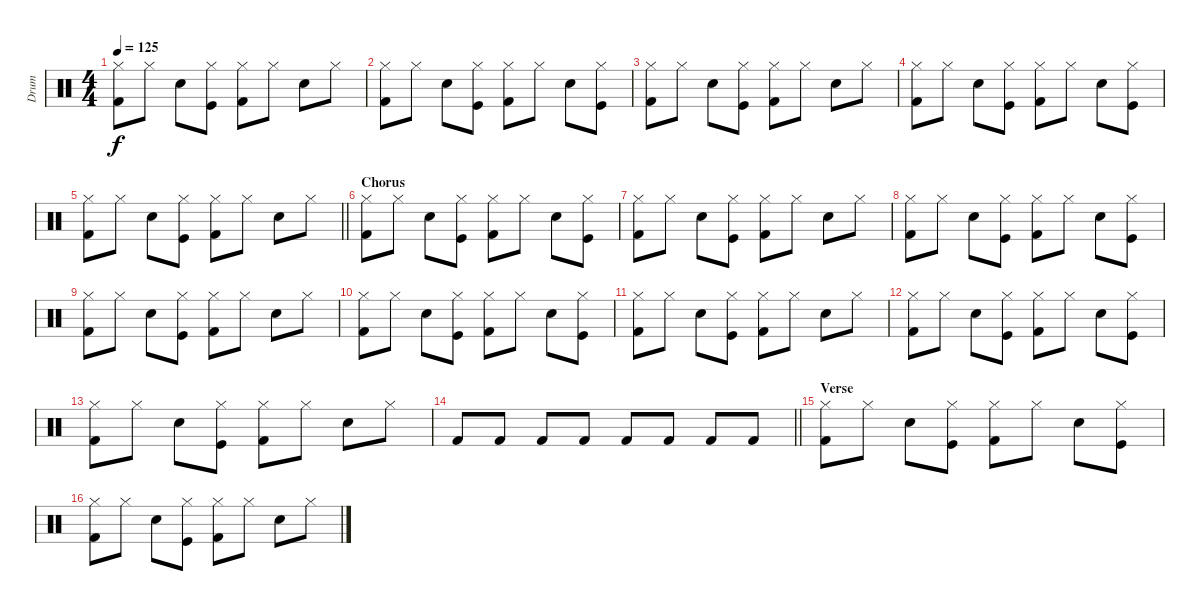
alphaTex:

\track ("Drum" "Drum") {instrument percussion}
\staff {score}
\articulation defaults
\ts (4 4)
\tempo 125
\clef neutral
\ks c
("Hi-Hat (closed)" "Kick (hit) 2").8{dy f} "Hi-Hat (closed)".8 "Electric Snare (hit)".8 ("Hi-Hat (closed)" "Kick (hit)").8 ("Hi-Hat (closed)" "Kick (hit) 2").8 "Hi-Hat (closed)".8 "Electric Snare (hit)".8 "Hi-Hat (closed)".8 |
("Hi-Hat (closed)" "Kick (hit) 2").8 "Hi-Hat (closed)".8 "Electric Snare (hit)".8 ("Hi-Hat (closed)" "Kick (hit)").8 ("Hi-Hat (closed)" "Kick (hit) 2").8 "Hi-Hat (closed)".8 "Electric Snare (hit)".8 ("Hi-Hat (closed)" "Kick (hit)").8 |
("Hi-Hat (closed)" "Kick (hit) 2").8 "Hi-Hat (closed)".8 "Electric Snare (hit)".8 ("Hi-Hat (closed)" "Kick (hit)").8 ("Hi-Hat (closed)" "Kick (hit) 2").8 "Hi-Hat (closed)".8 "Electric Snare (hit)".8 "Hi-Hat (closed)".8 |
("Hi-Hat (closed)" "Kick (hit) 2").8 "Hi-Hat (closed)".8 "Electric Snare (hit)".8 ("Hi-Hat (closed)" "Kick (hit)").8 ("Hi-Hat (closed)" "Kick (hit) 2").8 "Hi-Hat (closed)".8 "Electric Snare (hit)".8 ("Hi-Hat (closed)" "Kick (hit)").8 |
\barLineRight lightlight
("Hi-Hat (closed)" "Kick (hit) 2").8 "Hi-Hat (closed)".8 "Electric Snare (hit)".8 ("Hi-Hat (closed)" "Kick (hit)").8 ("Hi-Hat (closed)" "Kick (hit) 2").8 "Hi-Hat (closed)".8 "Electric Snare (hit)".8 "Hi-Hat (closed)".8 |
\section ("" "Chorus")
("Hi-Hat (closed)" "Kick (hit) 2").8 "Hi-Hat (closed)".8 "Electric Snare (hit)".8 ("Hi-Hat (closed)" "Kick (hit)").8 ("Hi-Hat (closed)" "Kick (hit) 2").8 "Hi-Hat (closed)".8 "Electric Snare (hit)".8 ("Hi-Hat (closed)" "Kick (hit)").8 |
("Hi-Hat (closed)" "Kick (hit) 2").8 "Hi-Hat (closed)".8 "Electric Snare (hit)".8 ("Hi-Hat (closed)" "Kick (hit)").8 ("Hi-Hat (closed)" "Kick (hit) 2").8 "Hi-Hat (closed)".8 "Electric Snare (hit)".8 "Hi-Hat (closed)".8 |
("Hi-Hat (closed)" "Kick (hit) 2").8 "Hi-Hat (closed)".8 "Electric Snare (hit)".8 ("Hi-Hat (closed)" "Kick (hit)").8 ("Hi-Hat (closed)" "Kick (hit) 2").8 "Hi-Hat (closed)".8 "Electric Snare (hit)".8 ("Hi-Hat (closed)" "Kick (hit)").8 |
("Hi-Hat (closed)" "Kick (hit) 2").8 "Hi-Hat (closed)".8 "Electric Snare (hit)".8 ("Hi-Hat (closed)" "Kick (hit)").8 ("Hi-Hat (closed)" "Kick (hit) 2").8 "Hi-Hat (closed)".8 "Electric Snare (hit)".8 "Hi-Hat (closed)".8 |
("Hi-Hat (closed)" "Kick (hit) 2").8 "Hi-Hat (closed)".8 "Electric Snare (hit)".8 ("Hi-Hat (closed)" "Kick (hit)").8 ("Hi-Hat (closed)" "Kick (hit) 2").8 "Hi-Hat (closed)".8 "Electric Snare (hit)".8 ("Hi-Hat (closed)" "Kick (hit)").8 |
("Hi-Hat (closed)" "Kick (hit) 2").8 "Hi-Hat (closed)".8 "Electric Snare (hit)".8 ("Hi-Hat (closed)" "Kick (hit)").8 ("Hi-Hat (closed)" "Kick (hit) 2").8 "Hi-Hat (closed)".8 "Electric Snare (hit)".8 "Hi-Hat (closed)".8 |
("Hi-Hat (closed)" "Kick (hit) 2").8 "Hi-Hat (closed)".8 "Electric Snare (hit)".8 ("Hi-Hat (closed)" "Kick (hit)").8 ("Hi-Hat (closed)" "Kick (hit) 2").8 "Hi-Hat (closed)".8 "Electric Snare (hit)".8 ("Hi-Hat (closed)" "Kick (hit)").8 |
("Hi-Hat (closed)" "Kick (hit) 2").8 "Hi-Hat (closed)".8 "Electric Snare (hit)".8 ("Hi-Hat (closed)" "Kick (hit)").8 ("Hi-Hat (closed)" "Kick (hit) 2").8 "Hi-Hat (closed)".8 "Electric Snare (hit)".8 "Hi-Hat (closed)".8 |
\barLineRight lightlight "Kick (hit) 2".8 "Kick (hit) 2".8 "Kick (hit) 2".8 "Kick (hit) 2".8 "Kick (hit) 2".8 "Kick (hit) 2".8 "Kick (hit) 2".8 "Kick (hit) 2".8
|
\section ("" "Verse")
("Hi-Hat (closed)" "Kick (hit) 2").8 "Hi-Hat (closed)".8 "Electric Snare (hit)".8 ("Hi-Hat (closed)" "Kick (hit)").8 ("Hi-Hat (closed)" "Kick (hit) 2").8 "Hi-Hat (closed)".8 "Electric Snare (hit)".8 ("Hi-Hat (closed)" "Kick (hit)").8 |
("Hi-Hat (closed)" "Kick (hit) 2").8 "Hi-Hat (closed)".8 "Electric Snare (hit)".8 ("Hi-Hat (closed)" "Kick (hit)").8 ("Hi-Hat (closed)" "Kick (hit) 2").8 "Hi-Hat (closed)".8 "Electric Snare (hit)".8 "Hi-Hat (closed)".8
